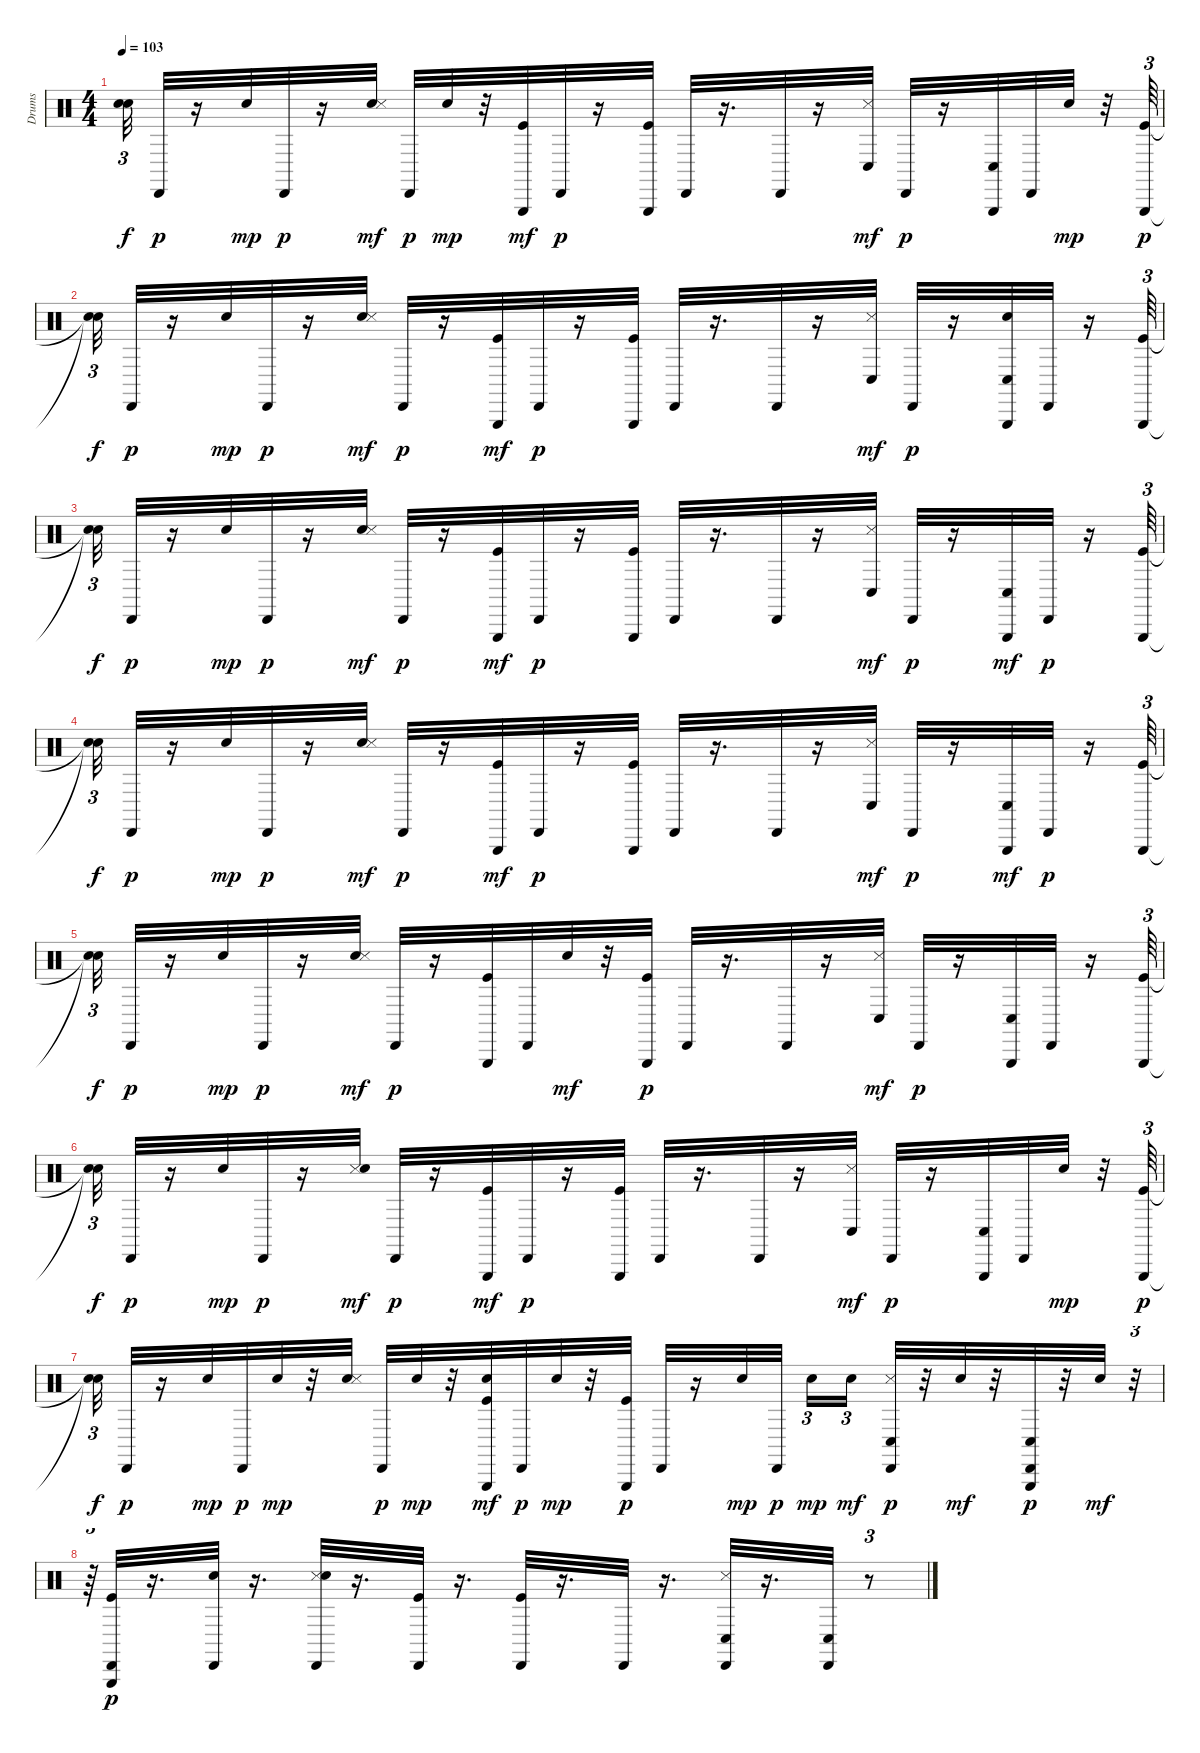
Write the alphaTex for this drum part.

\track ("Drums" "Drums") {instrument percussion}
\staff {score}
\articulation defaults
\ts (4 4)
\tempo 103
\clef neutral
\ks c
("Snare (hit)"{t} "Snare (hit)"{t}).32{tu (3 2) dy f} "Cabasa (hit)".32{dy p} r.16 "Snare (hit) 2".32{dy mp} "Cabasa (hit)".32{dy p} r.16 ("Snare (hit) 2" "Snare (side stick) 3").32{dy mf} "Cabasa (hit)".32{dy p} "Snare (hit) 2".32{dy mp} r.32 ("Triangle (hit)" "Kick (hit)").32{dy mf} "Cabasa (hit)".32{dy p} r.16 ("Triangle (hit)" "Kick (hit)").32 "Cabasa (hit)".32 r.16{d} "Cabasa (hit)".32 r.16 ("Snare (side stick) 3" "Conga low (hit)").32{dy mf} "Cabasa (hit)".32{dy p} r.16 ("Conga low (hit)" "Triangle (hit)").32 "Cabasa (hit)".32 "Snare (hit) 2".32{dy mp} r.32 ("Kick (hit)" "Triangle (hit)").64{tu (3 2) dy p} |
("Snare (hit)"{t} "Snare (hit)"{t}).32{tu (3 2) dy f} "Cabasa (hit)".32{dy p} r.16 "Snare (hit) 2".32{dy mp} "Cabasa (hit)".32{dy p} r.16 ("Snare (hit) 2" "Snare (side stick) 3").32{dy mf} "Cabasa (hit)".32{dy p} r.16 ("Triangle (hit)" "Kick (hit)").32{dy mf} "Cabasa (hit)".32{dy p} r.16 ("Kick (hit)" "Triangle (hit)").32 "Cabasa (hit)".32 r.16{d} "Cabasa (hit)".32 r.16 ("Snare (side stick) 3" "Conga low (hit)").32{dy mf} "Cabasa (hit)".32{dy p} r.16 ("Conga low (hit)" "Snare (hit) 2" "Triangle (hit)").32 "Cabasa (hit)".32 r.16 ("Triangle (hit)" "Kick (hit)").64{tu (3 2)} |
("Snare (hit)"{t} "Snare (hit)"{t}).32{tu (3 2) dy f} "Cabasa (hit)".32{dy p} r.16 "Snare (hit) 2".32{dy mp} "Cabasa (hit)".32{dy p} r.16 ("Snare (hit) 2" "Snare (side stick) 3").32{dy mf} "Cabasa (hit)".32{dy p} r.16 ("Triangle (hit)" "Kick (hit)").32{dy mf} "Cabasa (hit)".32{dy p} r.16 ("Kick (hit)" "Triangle (hit)").32 "Cabasa (hit)".32 r.16{d} "Cabasa (hit)".32 r.16 ("Snare (side stick) 3" "Conga low (hit)").32{dy mf} "Cabasa (hit)".32{dy p} r.16 ("Triangle (hit)" "Conga low (hit)").32{dy mf} "Cabasa (hit)".32{dy p} r.16 ("Triangle (hit)" "Kick (hit)").64{tu (3 2)} |
("Snare (hit)"{t} "Snare (hit)"{t}).32{tu (3 2) dy f} "Cabasa (hit)".32{dy p} r.16 "Snare (hit) 2".32{dy mp} "Cabasa (hit)".32{dy p} r.16 ("Snare (hit) 2" "Snare (side stick) 3").32{dy mf} "Cabasa (hit)".32{dy p} r.16 ("Triangle (hit)" "Kick (hit)").32{dy mf} "Cabasa (hit)".32{dy p} r.16 ("Triangle (hit)" "Kick (hit)").32 "Cabasa (hit)".32 r.16{d} "Cabasa (hit)".32 r.16 ("Conga low (hit)" "Snare (side stick) 3").32{dy mf} "Cabasa (hit)".32{dy p} r.16 ("Triangle (hit)" "Conga low (hit)").32{dy mf} "Cabasa (hit)".32{dy p} r.16 ("Kick (hit)" "Triangle (hit)").64{tu (3 2)} |
("Snare (hit)"{t} "Snare (hit)"{t}).32{tu (3 2) dy f} "Cabasa (hit)".32{dy p} r.16 "Snare (hit) 2".32{dy mp} "Cabasa (hit)".32{dy p} r.16 ("Snare (hit) 2" "Snare (side stick) 3").32{dy mf} "Cabasa (hit)".32{dy p} r.16 ("Kick (hit)" "Triangle (hit)").32 "Cabasa (hit)".32 "Snare (hit) 2".32{dy mf} r.32 ("Kick (hit)" "Triangle (hit)").32{dy p} "Cabasa (hit)".32 r.16{d} "Cabasa (hit)".32 r.16 ("Conga low (hit)" "Snare (side stick) 3").32{dy mf} "Cabasa (hit)".32{dy p} r.16 ("Conga low (hit)" "Triangle (hit)").32 "Cabasa (hit)".32 r.16 ("Triangle (hit)" "Kick (hit)").64{tu (3 2)} |
("Snare (hit)"{t} "Snare (hit)"{t}).32{tu (3 2) dy f} "Cabasa (hit)".32{dy p} r.16 "Snare (hit) 2".32{dy mp} "Cabasa (hit)".32{dy p} r.16 ("Snare (side stick) 3" "Snare (hit) 2").32{dy mf} "Cabasa (hit)".32{dy p} r.16 ("Triangle (hit)" "Kick (hit)").32{dy mf} "Cabasa (hit)".32{dy p} r.16 ("Kick (hit)" "Triangle (hit)").32 "Cabasa (hit)".32 r.16{d} "Cabasa (hit)".32 r.16 ("Snare (side stick) 3" "Conga low (hit)").32{dy mf} "Cabasa (hit)".32{dy p} r.16 ("Conga low (hit)" "Triangle (hit)").32 "Cabasa (hit)".32 "Snare (hit) 2".32{dy mp} r.32 ("Kick (hit)" "Triangle (hit)").64{tu (3 2) dy p} |
("Snare (hit)"{t} "Snare (hit)"{t}).32{tu (3 2) dy f} "Cabasa (hit)".32{dy p} r.16 "Snare (hit) 2".32{dy mp} "Cabasa (hit)".32{dy p} "Snare (hit) 2".32{dy mp} r.32 ("Snare (hit) 2" "Snare (side stick) 3").32 "Cabasa (hit)".32{dy p} "Snare (hit) 2".32{dy mp} r.32 ("Triangle (hit)" "Snare (hit) 2" "Kick (hit)").32{dy mf} "Cabasa (hit)".32{dy p} "Snare (hit) 2".32{dy mp} r.32 ("Kick (hit)" "Triangle (hit)").32{dy p} "Cabasa (hit)".32 r.16 "Snare (hit) 2".32{dy mp} "Cabasa (hit)".32{dy p} "Snare (hit) 2".16{tu (3 2) dy mp} "Snare (hit) 2".16{tu (3 2) dy mf} ("Snare (side stick) 3" "Conga low (hit)" "Cabasa (hit)").32{dy p} r.32 "Snare (hit) 2".32{dy mf} r.32 ("Triangle (hit)" "Conga low (hit)" "Cabasa (hit)").32{dy p} r.32 "Snare (hit) 2".32{dy mf} r.32{tu (3 2)} |
r.64{tu (3 2)} ("Triangle (hit)" "Kick (hit)" "Cabasa (hit)").32{dy p} r.16{d} ("Snare (hit) 2" "Cabasa (hit)").32 r.16{d} ("Snare (side stick) 3" "Snare (hit) 2" "Cabasa (hit)").32 r.16{d} ("Kick (hit)" "Cabasa (hit)").32 r.16{d} ("Kick (hit)" "Cabasa (hit)").32 r.16{d} "Cabasa (hit)".32 r.16{d} ("Conga low (hit)" "Snare (side stick) 3" "Cabasa (hit)").32 r.16{d} ("Conga low (hit)" "Cabasa (hit)").32 r.8{tu (3 2)}
